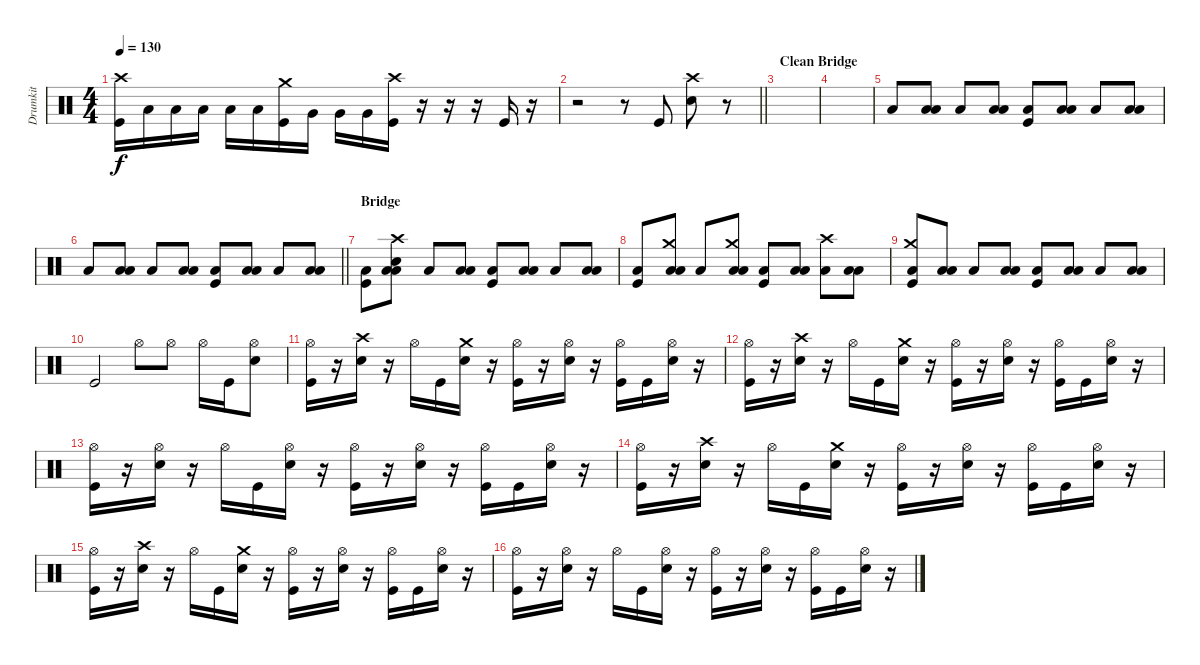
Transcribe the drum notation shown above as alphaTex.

\track ("Drumkit" "Drumkit") {instrument percussion}
\staff {score}
\articulation defaults
\ts (4 4)
\tempo 130
\clef neutral
\ks c
("Crash high (hit)" "Kick (hit)").16{dy f} "Low Tom (hit)".16 "Low Tom (hit)".16 "Low Tom (hit)".16 "Low Tom (hit)".16 "Low Tom (hit)".16 ("Kick (hit)" "Crash medium (hit)").16 "Very Low Tom (hit)".16 "Very Low Tom (hit)".16 "Very Low Tom (hit)".16 ("Kick (hit)" "Crash high (hit)").16 r.16 r.16 r.16 "Kick (hit)".16 r.16 |
\barLineRight lightlight
r.2 r.8 "Kick (hit)".8 ("Snare (hit) 2" "Crash high (hit)").8 r.8 |
\section ("" "Clean Bridge")
|
|
"Low Floor Tom (hit)".8 ("Low Floor Tom (hit)" "Low Tom (hit)").8 "Low Floor Tom (hit)".8 ("Low Floor Tom (hit)" "Low Tom (hit)").8 ("Low Floor Tom (hit)" "Kick (hit)").8 ("Low Floor Tom (hit)" "Low Tom (hit)").8 "Low Floor Tom (hit)".8 ("Low Floor Tom (hit)" "Low Tom (hit)").8 |
\barLineRight lightlight "Low Floor Tom (hit)".8
("Low Floor Tom (hit)" "Low Tom (hit)").8 "Low Floor Tom (hit)".8 ("Low Floor Tom (hit)" "Low Tom (hit)").8 ("Low Floor Tom (hit)" "Kick (hit)").8 ("Low Floor Tom (hit)" "Low Tom (hit)").8 "Low Floor Tom (hit)".8 ("Low Floor Tom (hit)" "Low Tom (hit)").8 |
\section ("" "Bridge")
("Low Floor Tom (hit)" "Kick (hit)").8 ("Low Floor Tom (hit)" "Low Tom (hit)" "Snare (hit) 2" "Crash high (hit)").8 "Low Floor Tom (hit)".8 ("Low Floor Tom (hit)" "Low Tom (hit)").8 ("Low Floor Tom (hit)" "Kick (hit)").8 ("Low Floor Tom (hit)" "Low Tom (hit)").8 "Low Floor Tom (hit)".8 ("Low Floor Tom (hit)" "Low Tom (hit)").8 |
("Low Floor Tom (hit)" "Kick (hit)").8 ("Low Floor Tom (hit)" "Low Tom (hit)" "Crash medium (hit)").8 "Low Floor Tom (hit)".8 ("Low Floor Tom (hit)" "Low Tom (hit)" "Crash medium (hit)").8 ("Low Floor Tom (hit)" "Kick (hit)").8 ("Low Floor Tom (hit)" "Low Tom (hit)").8 ("Low Floor Tom (hit)" "Crash high (hit)").8 ("Low Floor Tom (hit)" "Low Tom (hit)").8 |
("Low Floor Tom (hit)" "Kick (hit)" "Crash medium (hit)").8 ("Low Floor Tom (hit)" "Low Tom (hit)").8 "Low Floor Tom (hit)".8 ("Low Floor Tom (hit)" "Low Tom (hit)").8 ("Low Floor Tom (hit)" "Kick (hit)").8 ("Low Floor Tom (hit)" "Low Tom (hit)").8 "Low Floor Tom (hit)".8 ("Low Floor Tom (hit)" "Low Tom (hit)").8 |
"Kick (hit)".2 "Hi-Hat (open)".8 "Hi-Hat (open)".8 "Hi-Hat (open)".16 "Kick (hit)".16 ("Snare (hit) 2" "Hi-Hat (open)").8 |
("Kick (hit)" "Hi-Hat (open)").16 r.16 ("Snare (hit) 2" "Crash high (hit)").16 r.16 "Hi-Hat (open)".16 "Kick (hit)".16 ("Snare (hit) 2" "Crash medium (hit)").16 r.16 ("Kick (hit)" "Hi-Hat (open)").16 r.16 ("Snare (hit) 2" "Hi-Hat (open)").16 r.16 ("Kick (hit)" "Hi-Hat (open)").16 "Kick (hit)".16 ("Snare (hit) 2" "Hi-Hat (open)").16 r.16 |
("Kick (hit)" "Hi-Hat (open)").16 r.16 ("Snare (hit) 2" "Crash high (hit)").16 r.16 "Hi-Hat (open)".16 "Kick (hit)".16 ("Snare (hit) 2" "Crash medium (hit)").16 r.16 ("Kick (hit)" "Hi-Hat (open)").16 r.16 ("Snare (hit) 2" "Hi-Hat (open)").16 r.16 ("Kick (hit)" "Hi-Hat (open)").16 "Kick (hit)".16 ("Snare (hit) 2" "Hi-Hat (open)").16 r.16 |
("Kick (hit)" "Hi-Hat (open)").16 r.16 ("Snare (hit) 2" "Hi-Hat (open)").16 r.16 "Hi-Hat (open)".16 "Kick (hit)".16 ("Snare (hit) 2" "Hi-Hat (open)").16 r.16 ("Kick (hit)" "Hi-Hat (open)").16 r.16 ("Snare (hit) 2" "Hi-Hat (open)").16 r.16 ("Kick (hit)" "Hi-Hat (open)").16 "Kick (hit)".16 ("Snare (hit) 2" "Hi-Hat (open)").16 r.16 |
("Kick (hit)" "Hi-Hat (open)").16 r.16 ("Snare (hit) 2" "Crash high (hit)").16 r.16 "Hi-Hat (open)".16 "Kick (hit)".16 ("Snare (hit) 2" "Crash medium (hit)").16 r.16 ("Kick (hit)" "Hi-Hat (open)").16 r.16 ("Snare (hit) 2" "Hi-Hat (open)").16 r.16 ("Kick (hit)" "Hi-Hat (open)").16 "Kick (hit)".16 ("Snare (hit) 2" "Hi-Hat (open)").16 r.16 |
("Kick (hit)" "Hi-Hat (open)").16 r.16 ("Snare (hit) 2" "Crash high (hit)").16 r.16 "Hi-Hat (open)".16 "Kick (hit)".16 ("Snare (hit) 2" "Crash medium (hit)").16 r.16 ("Kick (hit)" "Hi-Hat (open)").16 r.16 ("Snare (hit) 2" "Hi-Hat (open)").16 r.16 ("Kick (hit)" "Hi-Hat (open)").16 "Kick (hit)".16 ("Snare (hit) 2" "Hi-Hat (open)").16 r.16 |
("Kick (hit)" "Hi-Hat (open)").16 r.16 ("Snare (hit) 2" "Hi-Hat (open)").16 r.16 "Hi-Hat (open)".16 "Kick (hit)".16 ("Snare (hit) 2" "Hi-Hat (open)").16 r.16 ("Kick (hit)" "Hi-Hat (open)").16 r.16 ("Snare (hit) 2" "Hi-Hat (open)").16 r.16 ("Kick (hit)" "Hi-Hat (open)").16 "Kick (hit)".16 ("Snare (hit) 2" "Hi-Hat (open)").16 r.16
